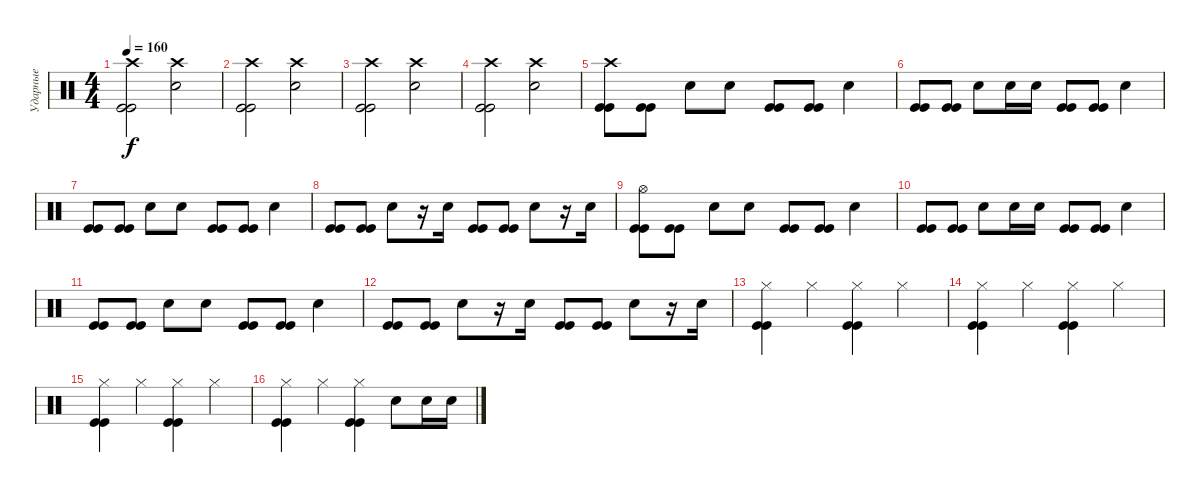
\track ("Ударные" "Ударные") {instrument percussion}
\staff {score}
\articulation defaults
\ts (4 4)
\tempo 160
\clef neutral
\ks c
("Crash high (hit)" "Kick (hit)" "Kick (hit)").2{dy f} ("Crash high (hit)" "Electric Snare (hit)").2 |
("Crash high (hit)" "Kick (hit)" "Kick (hit)").2 ("Crash high (hit)" "Electric Snare (hit)").2 |
("Crash high (hit)" "Kick (hit)" "Kick (hit)").2 ("Crash high (hit)" "Electric Snare (hit)").2 |
("Crash high (hit)" "Kick (hit)" "Kick (hit)").2 ("Crash high (hit)" "Electric Snare (hit)").2 |
("Crash high (hit)" "Kick (hit)" "Kick (hit)").8 ("Kick (hit)" "Kick (hit)").8 "Electric Snare (hit)".8 "Electric Snare (hit)".8 ("Kick (hit)" "Kick (hit)").8 ("Kick (hit)" "Kick (hit)").8 "Electric Snare (hit)".4 |
("Kick (hit)" "Kick (hit)").8 ("Kick (hit)" "Kick (hit)").8 "Electric Snare (hit)".8 "Electric Snare (hit)".16 "Electric Snare (hit)".16 ("Kick (hit)" "Kick (hit)").8 ("Kick (hit)" "Kick (hit)").8 "Electric Snare (hit)".4 |
("Kick (hit)" "Kick (hit)").8 ("Kick (hit)" "Kick (hit)").8 "Electric Snare (hit)".8 "Electric Snare (hit)".8 ("Kick (hit)" "Kick (hit)").8 ("Kick (hit)" "Kick (hit)").8 "Electric Snare (hit)".4 |
("Kick (hit)" "Kick (hit)").8 ("Kick (hit)" "Kick (hit)").8 "Electric Snare (hit)".8 r.16 "Electric Snare (hit)".16 ("Kick (hit)" "Kick (hit)").8 ("Kick (hit)" "Kick (hit)").8 "Electric Snare (hit)".8 r.16 "Electric Snare (hit)".16 |
("Hi-Hat (open)" "Kick (hit)" "Kick (hit)").8 ("Kick (hit)" "Kick (hit)").8 "Electric Snare (hit)".8 "Electric Snare (hit)".8 ("Kick (hit)" "Kick (hit)").8 ("Kick (hit)" "Kick (hit)").8 "Electric Snare (hit)".4 |
("Kick (hit)" "Kick (hit)").8 ("Kick (hit)" "Kick (hit)").8 "Electric Snare (hit)".8 "Electric Snare (hit)".16 "Electric Snare (hit)".16 ("Kick (hit)" "Kick (hit)").8 ("Kick (hit)" "Kick (hit)").8 "Electric Snare (hit)".4 |
("Kick (hit)" "Kick (hit)").8 ("Kick (hit)" "Kick (hit)").8 "Electric Snare (hit)".8 "Electric Snare (hit)".8 ("Kick (hit)" "Kick (hit)").8 ("Kick (hit)" "Kick (hit)").8 "Electric Snare (hit)".4 |
("Kick (hit)" "Kick (hit)").8 ("Kick (hit)" "Kick (hit)").8 "Electric Snare (hit)".8 r.16 "Electric Snare (hit)".16 ("Kick (hit)" "Kick (hit)").8 ("Kick (hit)" "Kick (hit)").8 "Electric Snare (hit)".8 r.16 "Electric Snare (hit)".16 |
("Hi-Hat (closed)" "Kick (hit)" "Kick (hit)").4 "Hi-Hat (closed)".4 ("Hi-Hat (closed)" "Kick (hit)" "Kick (hit)").4 "Hi-Hat (closed)".4 |
("Hi-Hat (closed)" "Kick (hit)" "Kick (hit)").4 "Hi-Hat (closed)".4 ("Hi-Hat (closed)" "Kick (hit)" "Kick (hit)").4 "Hi-Hat (closed)".4 |
("Hi-Hat (closed)" "Kick (hit)" "Kick (hit)").4 "Hi-Hat (closed)".4 ("Hi-Hat (closed)" "Kick (hit)" "Kick (hit)").4 "Hi-Hat (closed)".4 |
("Hi-Hat (closed)" "Kick (hit)" "Kick (hit)").4 "Hi-Hat (closed)".4 ("Hi-Hat (closed)" "Kick (hit)" "Kick (hit)").4 "Electric Snare (hit)".8 "Electric Snare (hit)".16 "Electric Snare (hit)".16
